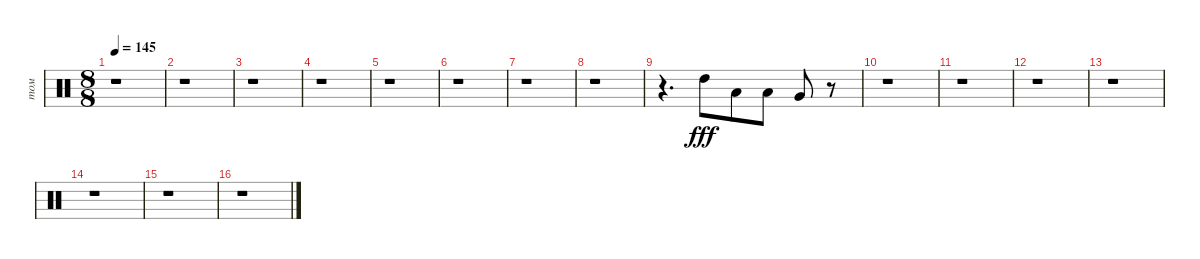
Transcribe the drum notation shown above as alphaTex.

\track ("том" "том") {instrument percussion}
\staff {score}
\articulation defaults
\ts (8 8)
\tempo 145
\clef neutral
\ks c
r.1{dy fff} |
r.1 |
r.1 |
r.1 |
r.1 |
r.1 |
r.1 |
r.1 |
r.4{d} "High Tom (hit)".8 "Low Tom (hit)".8 "Low Tom (hit)".8 "Very Low Tom (hit)".8 r.8 |
r.1 |
r.1 |
r.1 |
r.1 |
r.1 |
r.1 |
r.1
